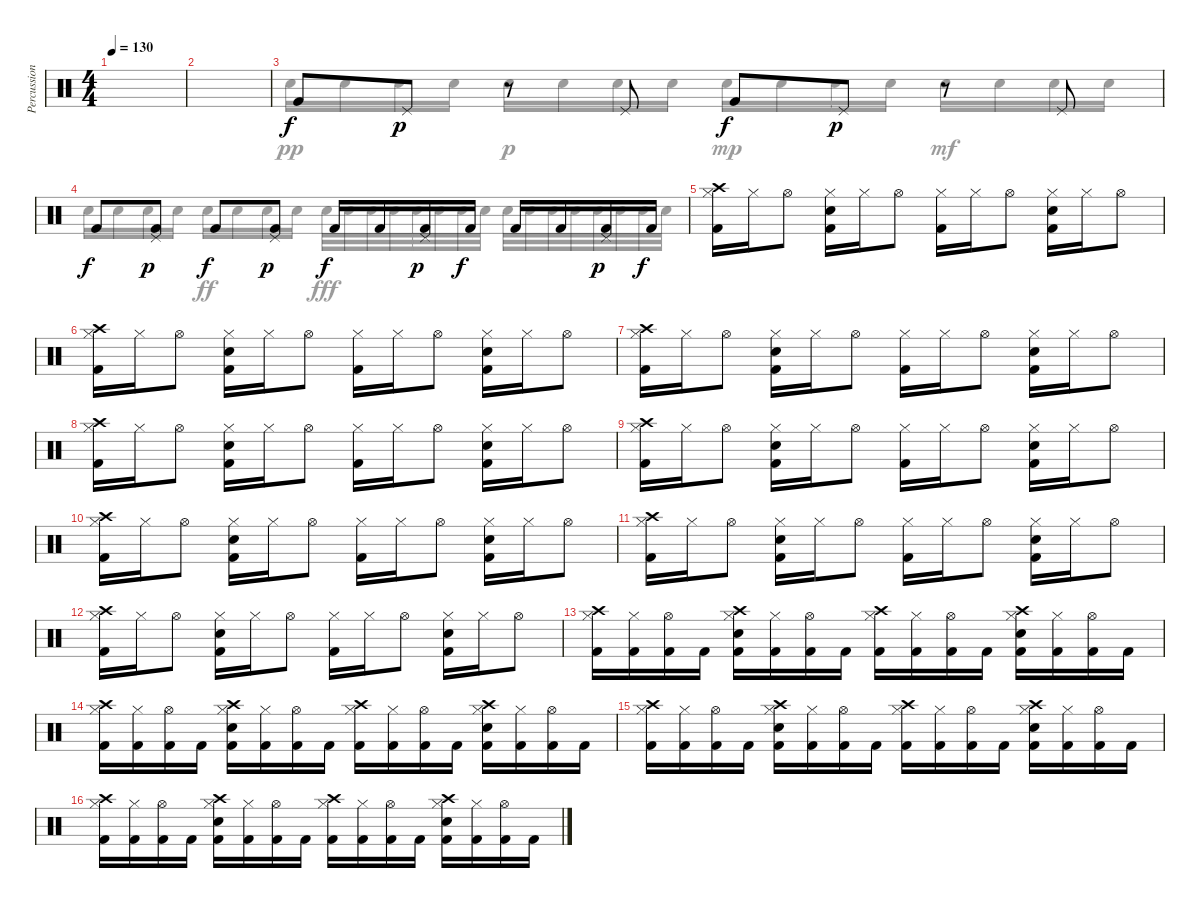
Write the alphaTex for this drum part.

\track ("Percussions" "Percussion") {instrument percussion}
\staff {score}
\articulation defaults
\voice
\ts (4 4)
\tempo 130
\clef neutral
\ks c
|
|
"Kick (hit) 2".8{dy f} "Pedal Hi-Hat (hit)".8{dy p} r.8 "Pedal Hi-Hat (hit)".8 "Kick (hit) 2".8{dy f} "Pedal Hi-Hat (hit)".8{dy p} r.8 "Pedal Hi-Hat (hit)".8 |
"Kick (hit) 2".8{dy f} ("Pedal Hi-Hat (hit)" "Kick (hit) 2").8{dy p} "Kick (hit) 2".8{dy f} ("Pedal Hi-Hat (hit)" "Kick (hit) 2").8{dy p} "Kick (hit) 2".16{dy f} "Kick (hit) 2".16 ("Pedal Hi-Hat (hit)" "Kick (hit) 2").16{dy p} "Kick (hit) 2".16{dy f} "Kick (hit) 2".16 "Kick (hit) 2".16 ("Pedal Hi-Hat (hit)" "Kick (hit) 2").16{dy p} "Kick (hit) 2".16{dy f} |
("Crash high (hit)" "Hi-Hat (closed)" "Kick (hit) 2").16 "Hi-Hat (closed)".16 "Hi-Hat (open)".8 ("Hi-Hat (closed)" "Electric Snare (hit)" "Kick (hit) 2").16 "Hi-Hat (closed)".16 "Hi-Hat (open)".8 ("Hi-Hat (closed)" "Kick (hit) 2").16 "Hi-Hat (closed)".16 "Hi-Hat (open)".8 ("Hi-Hat (closed)" "Electric Snare (hit)" "Kick (hit) 2").16 "Hi-Hat (closed)".16 "Hi-Hat (open)".8 |
("Crash high (hit)" "Hi-Hat (closed)" "Kick (hit) 2").16 "Hi-Hat (closed)".16 "Hi-Hat (open)".8 ("Hi-Hat (closed)" "Electric Snare (hit)" "Kick (hit) 2").16 "Hi-Hat (closed)".16 "Hi-Hat (open)".8 ("Hi-Hat (closed)" "Kick (hit) 2").16 "Hi-Hat (closed)".16 "Hi-Hat (open)".8 ("Hi-Hat (closed)" "Electric Snare (hit)" "Kick (hit) 2").16 "Hi-Hat (closed)".16 "Hi-Hat (open)".8 |
("Crash high (hit)" "Hi-Hat (closed)" "Kick (hit) 2").16 "Hi-Hat (closed)".16 "Hi-Hat (open)".8 ("Hi-Hat (closed)" "Electric Snare (hit)" "Kick (hit) 2").16 "Hi-Hat (closed)".16 "Hi-Hat (open)".8 ("Hi-Hat (closed)" "Kick (hit) 2").16 "Hi-Hat (closed)".16 "Hi-Hat (open)".8 ("Hi-Hat (closed)" "Electric Snare (hit)" "Kick (hit) 2").16 "Hi-Hat (closed)".16 "Hi-Hat (open)".8 |
("Crash high (hit)" "Hi-Hat (closed)" "Kick (hit) 2").16 "Hi-Hat (closed)".16 "Hi-Hat (open)".8 ("Hi-Hat (closed)" "Electric Snare (hit)" "Kick (hit) 2").16 "Hi-Hat (closed)".16 "Hi-Hat (open)".8 ("Hi-Hat (closed)" "Kick (hit) 2").16 "Hi-Hat (closed)".16 "Hi-Hat (open)".8 ("Hi-Hat (closed)" "Electric Snare (hit)" "Kick (hit) 2").16 "Hi-Hat (closed)".16 "Hi-Hat (open)".8 |
("Crash high (hit)" "Hi-Hat (closed)" "Kick (hit) 2").16 "Hi-Hat (closed)".16 "Hi-Hat (open)".8 ("Hi-Hat (closed)" "Electric Snare (hit)" "Kick (hit) 2").16 "Hi-Hat (closed)".16 "Hi-Hat (open)".8 ("Hi-Hat (closed)" "Kick (hit) 2").16 "Hi-Hat (closed)".16 "Hi-Hat (open)".8 ("Hi-Hat (closed)" "Electric Snare (hit)" "Kick (hit) 2").16 "Hi-Hat (closed)".16 "Hi-Hat (open)".8 |
("Crash high (hit)" "Hi-Hat (closed)" "Kick (hit) 2").16 "Hi-Hat (closed)".16 "Hi-Hat (open)".8 ("Hi-Hat (closed)" "Electric Snare (hit)" "Kick (hit) 2").16 "Hi-Hat (closed)".16 "Hi-Hat (open)".8 ("Hi-Hat (closed)" "Kick (hit) 2").16 "Hi-Hat (closed)".16 "Hi-Hat (open)".8 ("Hi-Hat (closed)" "Electric Snare (hit)" "Kick (hit) 2").16 "Hi-Hat (closed)".16 "Hi-Hat (open)".8 |
("Crash high (hit)" "Hi-Hat (closed)" "Kick (hit) 2").16 "Hi-Hat (closed)".16 "Hi-Hat (open)".8 ("Hi-Hat (closed)" "Electric Snare (hit)" "Kick (hit) 2").16 "Hi-Hat (closed)".16 "Hi-Hat (open)".8 ("Hi-Hat (closed)" "Kick (hit) 2").16 "Hi-Hat (closed)".16 "Hi-Hat (open)".8 ("Hi-Hat (closed)" "Electric Snare (hit)" "Kick (hit) 2").16 "Hi-Hat (closed)".16 "Hi-Hat (open)".8 |
("Crash high (hit)" "Hi-Hat (closed)" "Kick (hit) 2").16 "Hi-Hat (closed)".16 "Hi-Hat (open)".8 ("Hi-Hat (closed)" "Electric Snare (hit)" "Kick (hit) 2").16 "Hi-Hat (closed)".16 "Hi-Hat (open)".8 ("Hi-Hat (closed)" "Kick (hit) 2").16 "Hi-Hat (closed)".16 "Hi-Hat (open)".8 ("Hi-Hat (closed)" "Electric Snare (hit)" "Kick (hit) 2").16 "Hi-Hat (closed)".16 "Hi-Hat (open)".8 |
("Crash high (hit)" "Hi-Hat (closed)" "Kick (hit) 2").16 ("Hi-Hat (closed)" "Kick (hit) 2").16 ("Hi-Hat (open)" "Kick (hit) 2").16 "Kick (hit) 2".16 ("Crash high (hit)" "Hi-Hat (closed)" "Electric Snare (hit)" "Kick (hit) 2").16 ("Hi-Hat (closed)" "Kick (hit) 2").16 ("Hi-Hat (open)" "Kick (hit) 2").16 "Kick (hit) 2".16 ("Crash high (hit)" "Hi-Hat (closed)" "Kick (hit) 2").16 ("Hi-Hat (closed)" "Kick (hit) 2").16 ("Hi-Hat (open)" "Kick (hit) 2").16 "Kick (hit) 2".16 ("Crash high (hit)" "Hi-Hat (closed)" "Electric Snare (hit)" "Kick (hit) 2").16 ("Hi-Hat (closed)" "Kick (hit) 2").16 ("Hi-Hat (open)" "Kick (hit) 2").16 "Kick (hit) 2".16 |
("Crash high (hit)" "Hi-Hat (closed)" "Kick (hit) 2").16 ("Hi-Hat (closed)" "Kick (hit) 2").16 ("Hi-Hat (open)" "Kick (hit) 2").16 "Kick (hit) 2".16 ("Crash high (hit)" "Hi-Hat (closed)" "Electric Snare (hit)" "Kick (hit) 2").16 ("Hi-Hat (closed)" "Kick (hit) 2").16 ("Hi-Hat (open)" "Kick (hit) 2").16 "Kick (hit) 2".16 ("Crash high (hit)" "Hi-Hat (closed)" "Kick (hit) 2").16 ("Hi-Hat (closed)" "Kick (hit) 2").16 ("Hi-Hat (open)" "Kick (hit) 2").16 "Kick (hit) 2".16 ("Crash high (hit)" "Hi-Hat (closed)" "Electric Snare (hit)" "Kick (hit) 2").16 ("Hi-Hat (closed)" "Kick (hit) 2").16 ("Hi-Hat (open)" "Kick (hit) 2").16 "Kick (hit) 2".16 |
("Crash high (hit)" "Hi-Hat (closed)" "Kick (hit) 2").16 ("Hi-Hat (closed)" "Kick (hit) 2").16 ("Hi-Hat (open)" "Kick (hit) 2").16 "Kick (hit) 2".16 ("Crash high (hit)" "Hi-Hat (closed)" "Electric Snare (hit)" "Kick (hit) 2").16 ("Hi-Hat (closed)" "Kick (hit) 2").16 ("Hi-Hat (open)" "Kick (hit) 2").16 "Kick (hit) 2".16 ("Crash high (hit)" "Hi-Hat (closed)" "Kick (hit) 2").16 ("Hi-Hat (closed)" "Kick (hit) 2").16 ("Hi-Hat (open)" "Kick (hit) 2").16 "Kick (hit) 2".16 ("Crash high (hit)" "Hi-Hat (closed)" "Electric Snare (hit)" "Kick (hit) 2").16 ("Hi-Hat (closed)" "Kick (hit) 2").16 ("Hi-Hat (open)" "Kick (hit) 2").16 "Kick (hit) 2".16 |
("Crash high (hit)" "Hi-Hat (closed)" "Kick (hit) 2").16 ("Hi-Hat (closed)" "Kick (hit) 2").16 ("Hi-Hat (open)" "Kick (hit) 2").16 "Kick (hit) 2".16 ("Crash high (hit)" "Hi-Hat (closed)" "Electric Snare (hit)" "Kick (hit) 2").16 ("Hi-Hat (closed)" "Kick (hit) 2").16 ("Hi-Hat (open)" "Kick (hit) 2").16 "Kick (hit) 2".16 ("Crash high (hit)" "Hi-Hat (closed)" "Kick (hit) 2").16 ("Hi-Hat (closed)" "Kick (hit) 2").16 ("Hi-Hat (open)" "Kick (hit) 2").16 "Kick (hit) 2".16 ("Crash high (hit)" "Hi-Hat (closed)" "Electric Snare (hit)" "Kick (hit) 2").16 ("Hi-Hat (closed)" "Kick (hit) 2").16 ("Hi-Hat (open)" "Kick (hit) 2").16 "Kick (hit) 2".16
\voice
\clef neutral
\ottava regular
\simile none
\ks c
|
|
"Snare (hit) 2".16{dy pp} "Snare (hit) 2".16 "Snare (hit) 2".16 "Snare (hit) 2".16 "Snare (hit) 2".16{dy p} "Snare (hit) 2".16 "Snare (hit) 2".16 "Snare (hit) 2".16 "Snare (hit) 2".16{dy mp} "Snare (hit) 2".16 "Snare (hit) 2".16 "Snare (hit) 2".16 "Snare (hit) 2".16{dy mf} "Snare (hit) 2".16 "Snare (hit) 2".16 "Snare (hit) 2".16 |
"Snare (hit) 2".16{dy f} "Snare (hit) 2".16 "Snare (hit) 2".16 "Snare (hit) 2".16 "Snare (hit) 2".16{dy ff} "Snare (hit) 2".16 "Snare (hit) 2".16 "Snare (hit) 2".16 "Snare (hit) 2".32{dy fff} "Snare (hit) 2".32 "Snare (hit) 2".32 "Snare (hit) 2".32 "Snare (hit) 2".32 "Snare (hit) 2".32 "Snare (hit) 2".32 "Snare (hit) 2".32 "Snare (hit) 2".32 "Snare (hit) 2".32 "Snare (hit) 2".32 "Snare (hit) 2".32 "Snare (hit) 2".32 "Snare (hit) 2".32 "Snare (hit) 2".32 "Snare (hit) 2".32 |
|
|
|
|
|
|
|
|
|
|
|
